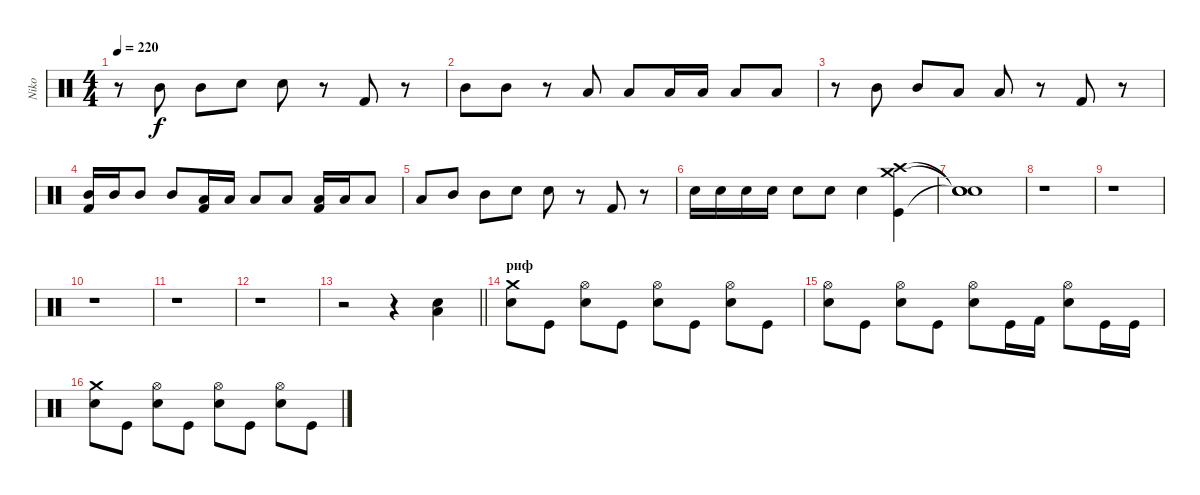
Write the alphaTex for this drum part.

\track ("Niko" "Niko") {instrument percussion}
\staff {score}
\articulation defaults
\ts (4 4)
\tempo 220
\clef neutral
\ks c
r.8{dy f} "Mid Tom (hit)".8 "Mid Tom (hit)".8 "Snare (hit) 2".8 "Snare (hit) 2".8 r.8 "Kick (hit) 2".8 r.8 |
"Mid Tom (hit)".8 "Mid Tom (hit)".8 r.8 "Low Tom (hit)".8 "Low Tom (hit)".8 "Low Tom (hit)".16 "Low Tom (hit)".16 "Low Floor Tom (hit)".8 "Low Floor Tom (hit)".8 |
r.8 "Mid Tom (hit)".8 "Mid Tom (hit)".8 "Low Tom (hit)".8 "Low Tom (hit)".8 r.8 "Kick (hit) 2".8 r.8 |
("Mid Tom (hit)" "Kick (hit) 2").16 "Mid Tom (hit)".16 "Mid Tom (hit)".8 "Mid Tom (hit)".8 ("Low Tom (hit)" "Kick (hit) 2").16 "Low Tom (hit)".16 "Low Tom (hit)".8 "Low Tom (hit)".8 ("Low Floor Tom (hit)" "Kick (hit) 2").16 "Low Floor Tom (hit)".16 "Low Floor Tom (hit)".8 |
"Low Floor Tom (hit)".8 "Mid Tom (hit)".8 "Mid Tom (hit)".8 "Snare (hit) 2".8 "Snare (hit) 2".8 r.8 "Kick (hit) 2".8 r.8 |
"Snare (hit) 2".16 "Snare (hit) 2".16 "Snare (hit) 2".16 "Snare (hit) 2".16 "Snare (hit) 2".8 "Snare (hit) 2".8 "Snare (hit) 2".4 ("Crash medium (hit)" "Crash high (hit)" "Kick (hit)").4 |
("Snare (hit)"{t} "Snare (hit)"{t} "Snare (hit)"{t}).1 |
r.1 |
r.1 |
r.1 |
r.1 |
r.1 |
\barLineRight lightlight
r.2 r.4 ("Snare (hit) 2" "Low Floor Tom (hit)").4 |
\section ("" "риф")
("Crash medium (hit)" "Snare (hit) 2").8 "Kick (hit)".8 ("Hi-Hat (open)" "Snare (hit) 2").8 "Kick (hit)".8 ("Hi-Hat (open)" "Snare (hit) 2").8 "Kick (hit)".8 ("Hi-Hat (open)" "Snare (hit) 2").8 "Kick (hit)".8 |
("Hi-Hat (open)" "Snare (hit) 2").8 "Kick (hit)".8 ("Hi-Hat (open)" "Snare (hit) 2").8 "Kick (hit)".8 ("Hi-Hat (open)" "Snare (hit) 2").8 "Kick (hit)".16 "Kick (hit) 2".16 ("Hi-Hat (open)" "Snare (hit) 2").8 "Kick (hit)".16 "Kick (hit)".16 |
("Crash medium (hit)" "Snare (hit) 2").8 "Kick (hit)".8 ("Hi-Hat (open)" "Snare (hit) 2").8 "Kick (hit)".8 ("Hi-Hat (open)" "Snare (hit) 2").8 "Kick (hit)".8 ("Hi-Hat (open)" "Snare (hit) 2").8 "Kick (hit)".8
